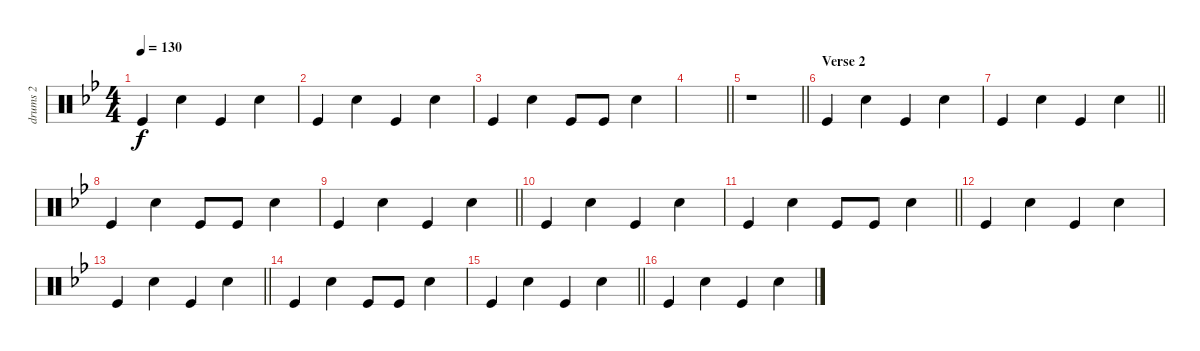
\track ("drums 2" "drums 2") {instrument percussion}
\staff {score}
\articulation defaults
\ts (4 4)
\tempo 130
\clef neutral
\ks bb "Kick (hit)".4{dy f} "Snare (hit) 2".4 "Kick (hit)".4 "Snare (hit) 2".4
|
"Kick (hit)".4 "Snare (hit) 2".4 "Kick (hit)".4 "Snare (hit) 2".4 |
"Kick (hit)".4 "Snare (hit) 2".4 "Kick (hit)".8 "Kick (hit)".8 "Snare (hit) 2".4 |
\barLineRight lightlight
|
\barLineRight lightlight
r.1 |
\section ("" "Verse 2")
"Kick (hit)".4 "Snare (hit) 2".4 "Kick (hit)".4 "Snare (hit) 2".4 |
\barLineRight lightlight "Kick (hit)".4 "Snare (hit) 2".4 "Kick (hit)".4 "Snare (hit) 2".4
|
"Kick (hit)".4 "Snare (hit) 2".4 "Kick (hit)".8 "Kick (hit)".8 "Snare (hit) 2".4 |
\barLineRight lightlight "Kick (hit)".4 "Snare (hit) 2".4 "Kick (hit)".4 "Snare (hit) 2".4
|
"Kick (hit)".4 "Snare (hit) 2".4 "Kick (hit)".4 "Snare (hit) 2".4 |
\barLineRight lightlight "Kick (hit)".4 "Snare (hit) 2".4 "Kick (hit)".8 "Kick (hit)".8 "Snare (hit) 2".4
|
"Kick (hit)".4 "Snare (hit) 2".4 "Kick (hit)".4 "Snare (hit) 2".4 |
\barLineRight lightlight "Kick (hit)".4 "Snare (hit) 2".4 "Kick (hit)".4 "Snare (hit) 2".4
|
"Kick (hit)".4 "Snare (hit) 2".4 "Kick (hit)".8 "Kick (hit)".8 "Snare (hit) 2".4 |
\barLineRight lightlight "Kick (hit)".4 "Snare (hit) 2".4 "Kick (hit)".4 "Snare (hit) 2".4
|
"Kick (hit)".4 "Snare (hit) 2".4 "Kick (hit)".4 "Snare (hit) 2".4
